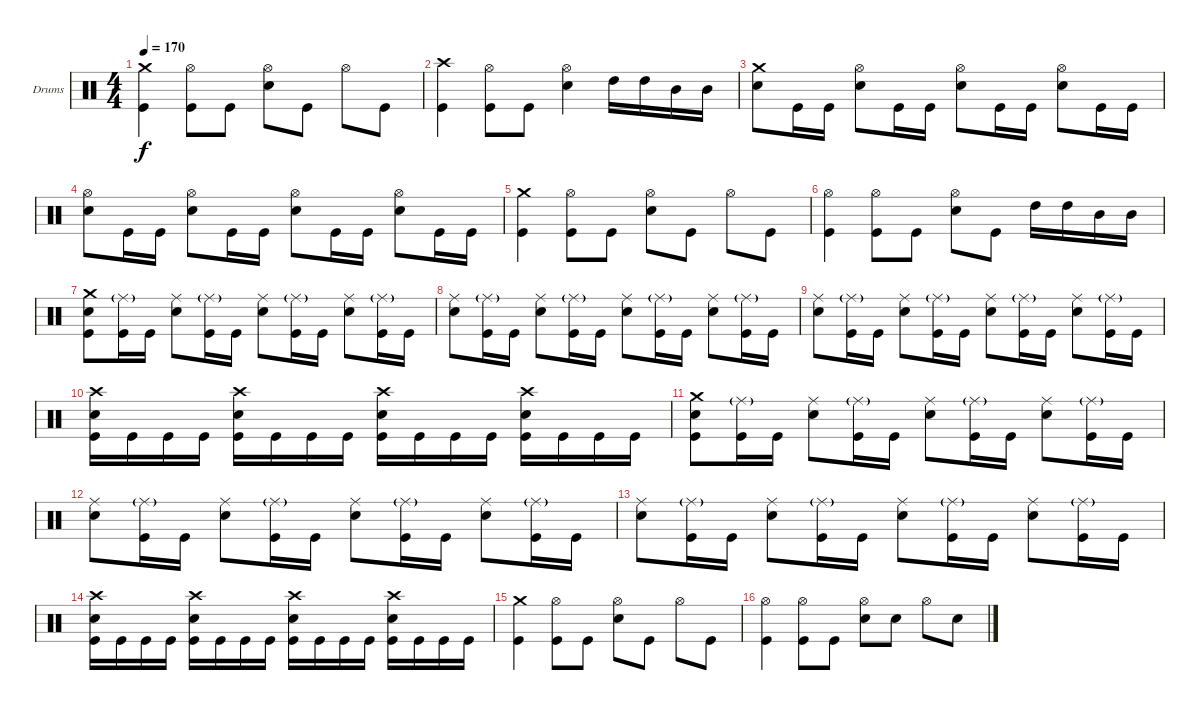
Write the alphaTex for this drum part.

\bracketExtendMode groupsimilarinstruments
\firstSystemTrackNameOrientation horizontal
\otherSystemsTrackNameOrientation horizontal
\track ("Дмитрий Кривенков" "Drums") {instrument percussion}
\staff {score}
\articulation defaults
\ts (4 4)
\tempo 170
\clef neutral
\ks c
("Crash medium (hit)" "Kick (hit)").4{dy f} ("Hi-Hat (open)" "Kick (hit)").8 "Kick (hit)".8 ("Hi-Hat (open)" "Snare (hit) 2").8 "Kick (hit)".8 "Hi-Hat (open)".8 "Kick (hit)".8 |
("Crash high (hit)" "Kick (hit)").4 ("Hi-Hat (open)" "Kick (hit)").8 "Kick (hit)".8 ("Hi-Hat (open)" "Snare (hit) 2").4 "High Tom (hit)".16 "High Tom (hit)".16 "Mid Tom (hit)".16 "Mid Tom (hit)".16 |
("Crash medium (hit)" "Snare (hit) 2").8 "Kick (hit)".16 "Kick (hit)".16 ("Hi-Hat (open)" "Snare (hit) 2").8 "Kick (hit)".16 "Kick (hit)".16 ("Hi-Hat (open)" "Snare (hit) 2").8 "Kick (hit)".16 "Kick (hit)".16 ("Hi-Hat (open)" "Snare (hit) 2").8 "Kick (hit)".16 "Kick (hit)".16 |
("Hi-Hat (open)" "Snare (hit) 2").8 "Kick (hit)".16 "Kick (hit)".16 ("Hi-Hat (open)" "Snare (hit) 2").8 "Kick (hit)".16 "Kick (hit)".16 ("Hi-Hat (open)" "Snare (hit) 2").8 "Kick (hit)".16 "Kick (hit)".16 ("Hi-Hat (open)" "Snare (hit) 2").8 "Kick (hit)".16 "Kick (hit)".16 |
("Crash medium (hit)" "Kick (hit)").4 ("Hi-Hat (open)" "Kick (hit)").8 "Kick (hit)".8 ("Hi-Hat (open)" "Snare (hit) 2").8 "Kick (hit)".8 "Hi-Hat (open)".8 "Kick (hit)".8 |
("Hi-Hat (open)" "Kick (hit)").4 ("Hi-Hat (open)" "Kick (hit)").8 "Kick (hit)".8 ("Hi-Hat (open)" "Snare (hit) 2").8 "Kick (hit)".8 "High Tom (hit)".16 "High Tom (hit)".16 "Mid Tom (hit)".16 "Mid Tom (hit)".16 |
("Crash medium (hit)" "Snare (hit) 2" "Kick (hit)").8 ("Ride (middle)"{g} "Kick (hit)").16 "Kick (hit)".16 ("Ride (middle)" "Snare (hit) 2").8 ("Ride (middle)"{g} "Kick (hit)").16 "Kick (hit)".16 ("Ride (middle)" "Snare (hit) 2").8 ("Ride (middle)"{g} "Kick (hit)").16 "Kick (hit)".16 ("Ride (middle)" "Snare (hit) 2").8 ("Ride (middle)"{g} "Kick (hit)").16 "Kick (hit)".16 |
("Ride (middle)" "Snare (hit) 2").8 ("Ride (middle)"{g} "Kick (hit)").16 "Kick (hit)".16 ("Ride (middle)" "Snare (hit) 2").8 ("Ride (middle)"{g} "Kick (hit)").16 "Kick (hit)".16 ("Ride (middle)" "Snare (hit) 2").8 ("Ride (middle)"{g} "Kick (hit)").16 "Kick (hit)".16 ("Ride (middle)" "Snare (hit) 2").8 ("Ride (middle)"{g} "Kick (hit)").16 "Kick (hit)".16 |
("Ride (middle)" "Snare (hit) 2").8 ("Ride (middle)"{g} "Kick (hit)").16 "Kick (hit)".16 ("Ride (middle)" "Snare (hit) 2").8 ("Ride (middle)"{g} "Kick (hit)").16 "Kick (hit)".16 ("Ride (middle)" "Snare (hit) 2").8 ("Ride (middle)"{g} "Kick (hit)").16 "Kick (hit)".16 ("Ride (middle)" "Snare (hit) 2").8 ("Ride (middle)"{g} "Kick (hit)").16 "Kick (hit)".16 |
("Crash high (hit)" "Snare (hit) 2" "Kick (hit)").16 "Kick (hit)".16 "Kick (hit)".16 "Kick (hit)".16 ("Crash high (hit)" "Snare (hit) 2" "Kick (hit)").16 "Kick (hit)".16 "Kick (hit)".16 "Kick (hit)".16 ("Crash high (hit)" "Snare (hit) 2" "Kick (hit)").16 "Kick (hit)".16 "Kick (hit)".16 "Kick (hit)".16 ("Crash high (hit)" "Snare (hit) 2" "Kick (hit)").16 "Kick (hit)".16 "Kick (hit)".16 "Kick (hit)".16 |
("Crash medium (hit)" "Snare (hit) 2" "Kick (hit)").8 ("Ride (middle)"{g} "Kick (hit)").16 "Kick (hit)".16 ("Ride (middle)" "Snare (hit) 2").8 ("Ride (middle)"{g} "Kick (hit)").16 "Kick (hit)".16 ("Ride (middle)" "Snare (hit) 2").8 ("Ride (middle)"{g} "Kick (hit)").16 "Kick (hit)".16 ("Ride (middle)" "Snare (hit) 2").8 ("Ride (middle)"{g} "Kick (hit)").16 "Kick (hit)".16 |
("Ride (middle)" "Snare (hit) 2").8 ("Ride (middle)"{g} "Kick (hit)").16 "Kick (hit)".16 ("Ride (middle)" "Snare (hit) 2").8 ("Ride (middle)"{g} "Kick (hit)").16 "Kick (hit)".16 ("Ride (middle)" "Snare (hit) 2").8 ("Ride (middle)"{g} "Kick (hit)").16 "Kick (hit)".16 ("Ride (middle)" "Snare (hit) 2").8 ("Ride (middle)"{g} "Kick (hit)").16 "Kick (hit)".16 |
("Ride (middle)" "Snare (hit) 2").8 ("Ride (middle)"{g} "Kick (hit)").16 "Kick (hit)".16 ("Ride (middle)" "Snare (hit) 2").8 ("Ride (middle)"{g} "Kick (hit)").16 "Kick (hit)".16 ("Ride (middle)" "Snare (hit) 2").8 ("Ride (middle)"{g} "Kick (hit)").16 "Kick (hit)".16 ("Ride (middle)" "Snare (hit) 2").8 ("Ride (middle)"{g} "Kick (hit)").16 "Kick (hit)".16 |
("Crash high (hit)" "Snare (hit) 2" "Kick (hit)").16 "Kick (hit)".16 "Kick (hit)".16 "Kick (hit)".16 ("Crash high (hit)" "Snare (hit) 2" "Kick (hit)").16 "Kick (hit)".16 "Kick (hit)".16 "Kick (hit)".16 ("Crash high (hit)" "Snare (hit) 2" "Kick (hit)").16 "Kick (hit)".16 "Kick (hit)".16 "Kick (hit)".16 ("Crash high (hit)" "Snare (hit) 2" "Kick (hit)").16 "Kick (hit)".16 "Kick (hit)".16 "Kick (hit)".16 |
("Crash medium (hit)" "Kick (hit)").4 ("Hi-Hat (open)" "Kick (hit)").8 "Kick (hit)".8 ("Hi-Hat (open)" "Snare (hit) 2").8 "Kick (hit)".8 "Hi-Hat (open)".8 "Kick (hit)".8 |
("Hi-Hat (open)" "Kick (hit)").4 ("Hi-Hat (open)" "Kick (hit)").8 "Kick (hit)".8 ("Hi-Hat (open)" "Snare (hit) 2").8 "Snare (hit) 2".8 "Hi-Hat (open)".8 "Snare (hit) 2".8
